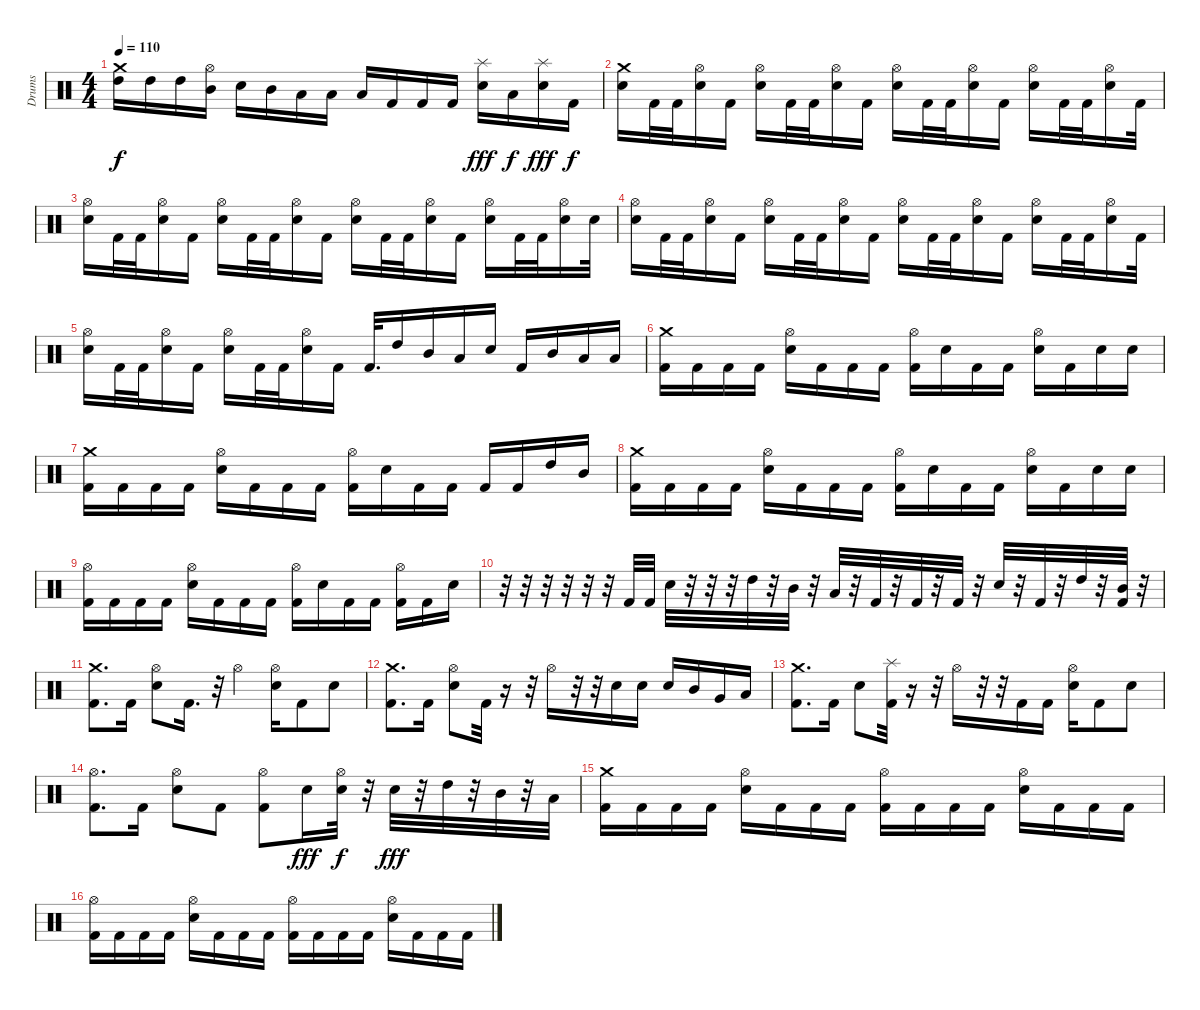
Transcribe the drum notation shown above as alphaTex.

\track ("Drums" "Drums") {instrument percussion}
\staff {score}
\articulation defaults
\ts (4 4)
\tempo 110
\clef neutral
\ks c
("Crash medium (hit)" "High Tom (hit)").16{dy f} "High Tom (hit)".16 "High Tom (hit)".16 ("Hi-Hat (open)" "Mid Tom (hit)").16 "Snare (hit) 2".16 "Mid Tom (hit)".16 "Low Tom (hit)".16 "Low Tom (hit)".16 "Low Tom (hit)".16 "Kick (hit) 2".16 "Kick (hit) 2".16 "Kick (hit) 2".16 ("Splash (hit)" "Snare (hit) 2").16{dy fff} "Low Tom (hit)".16{dy f} ("Splash (hit)" "Snare (hit) 2").16{dy fff} "Kick (hit) 2".16{dy f} |
("Crash medium (hit)" "Snare (hit) 2").16 "Kick (hit) 2".32 "Kick (hit) 2".32 ("Hi-Hat (open)" "Snare (hit) 2").16 "Kick (hit) 2".16 ("Hi-Hat (open)" "Snare (hit) 2").16 "Kick (hit) 2".32 "Kick (hit) 2".32 ("Hi-Hat (open)" "Snare (hit) 2").16 "Kick (hit) 2".16 ("Hi-Hat (open)" "Snare (hit) 2").16 "Kick (hit) 2".32 "Kick (hit) 2".32 ("Hi-Hat (open)" "Snare (hit) 2").16 "Kick (hit) 2".16 ("Hi-Hat (open)" "Snare (hit) 2").16 "Kick (hit) 2".32 "Kick (hit) 2".32 ("Hi-Hat (open)" "Snare (hit) 2").16 "Kick (hit) 2".32 |
("Hi-Hat (open)" "Snare (hit) 2").16 "Kick (hit) 2".32 "Kick (hit) 2".32 ("Hi-Hat (open)" "Snare (hit) 2").16 "Kick (hit) 2".16 ("Hi-Hat (open)" "Snare (hit) 2").16 "Kick (hit) 2".32 "Kick (hit) 2".32 ("Hi-Hat (open)" "Snare (hit) 2").16 "Kick (hit) 2".16 ("Hi-Hat (open)" "Snare (hit) 2").16 "Kick (hit) 2".32 "Kick (hit) 2".32 ("Hi-Hat (open)" "Snare (hit) 2").16 "Kick (hit) 2".16 ("Hi-Hat (open)" "Snare (hit) 2").16 "Kick (hit) 2".32 "Kick (hit) 2".32 ("Hi-Hat (open)" "Snare (hit) 2").16 "Snare (hit) 2".32 |
("Hi-Hat (open)" "Snare (hit) 2").16 "Kick (hit) 2".32 "Kick (hit) 2".32 ("Hi-Hat (open)" "Snare (hit) 2").16 "Kick (hit) 2".16 ("Hi-Hat (open)" "Snare (hit) 2").16 "Kick (hit) 2".32 "Kick (hit) 2".32 ("Hi-Hat (open)" "Snare (hit) 2").16 "Kick (hit) 2".16 ("Hi-Hat (open)" "Snare (hit) 2").16 "Kick (hit) 2".32 "Kick (hit) 2".32 ("Hi-Hat (open)" "Snare (hit) 2").16 "Kick (hit) 2".16 ("Hi-Hat (open)" "Snare (hit) 2").16 "Kick (hit) 2".32 "Kick (hit) 2".32 ("Hi-Hat (open)" "Snare (hit) 2").16 "Kick (hit) 2".32 |
("Hi-Hat (open)" "Snare (hit) 2").16 "Kick (hit) 2".32 "Kick (hit) 2".32 ("Hi-Hat (open)" "Snare (hit) 2").16 "Kick (hit) 2".16 ("Hi-Hat (open)" "Snare (hit) 2").16 "Kick (hit) 2".32 "Kick (hit) 2".32 ("Hi-Hat (open)" "Snare (hit) 2").16 "Kick (hit) 2".16 "Kick (hit) 2".32{d} "High Tom (hit)".16 "Mid Tom (hit)".16 "Low Tom (hit)".16 "Snare (hit) 2".16 "Kick (hit) 2".16 "Mid Tom (hit)".16 "Low Tom (hit)".16 "Low Tom (hit)".16 |
("Crash medium (hit)" "Kick (hit) 2").16 "Kick (hit) 2".16 "Kick (hit) 2".16 "Kick (hit) 2".16 ("Hi-Hat (open)" "Snare (hit) 2").16 "Kick (hit) 2".16 "Kick (hit) 2".16 "Kick (hit) 2".16 ("Hi-Hat (open)" "Kick (hit) 2").16 "Snare (hit) 2".16 "Kick (hit) 2".16 "Kick (hit) 2".16 ("Hi-Hat (open)" "Snare (hit) 2").16 "Kick (hit) 2".16 "Snare (hit) 2".16 "Snare (hit) 2".16 |
("Crash medium (hit)" "Kick (hit) 2").16 "Kick (hit) 2".16 "Kick (hit) 2".16 "Kick (hit) 2".16 ("Hi-Hat (open)" "Snare (hit) 2").16 "Kick (hit) 2".16 "Kick (hit) 2".16 "Kick (hit) 2".16 ("Hi-Hat (open)" "Kick (hit) 2").16 "Snare (hit) 2".16 "Kick (hit) 2".16 "Kick (hit) 2".16 "Kick (hit) 2".16 "Kick (hit) 2".16 "High Tom (hit)".16 "Mid Tom (hit)".16 |
("Crash medium (hit)" "Kick (hit) 2").16 "Kick (hit) 2".16 "Kick (hit) 2".16 "Kick (hit) 2".16 ("Hi-Hat (open)" "Snare (hit) 2").16 "Kick (hit) 2".16 "Kick (hit) 2".16 "Kick (hit) 2".16 ("Hi-Hat (open)" "Kick (hit) 2").16 "Snare (hit) 2".16 "Kick (hit) 2".16 "Kick (hit) 2".16 ("Hi-Hat (open)" "Snare (hit) 2").16 "Kick (hit) 2".16 "Snare (hit) 2".16 "Snare (hit) 2".16 |
("Hi-Hat (open)" "Kick (hit) 2").16 "Kick (hit) 2".16 "Kick (hit) 2".16 "Kick (hit) 2".16 ("Hi-Hat (open)" "Snare (hit) 2").16 "Kick (hit) 2".16 "Kick (hit) 2".16 "Kick (hit) 2".16 ("Hi-Hat (open)" "Kick (hit) 2").16 "Snare (hit) 2".16 "Kick (hit) 2".16 "Kick (hit) 2".16 ("Hi-Hat (open)" "Kick (hit) 2").16 "Kick (hit) 2".16 "Snare (hit) 2".16 |
r.32 r.32 r.32 r.32 r.32 r.32 "Kick (hit) 2".32 "Kick (hit) 2".32 "Snare (hit) 2".32 r.32 r.32 r.32 "High Tom (hit)".32 r.32 "Mid Tom (hit)".32 r.32 "Low Tom (hit)".32 r.32 "Kick (hit) 2".32 r.32 "Kick (hit) 2".32 r.32 "Kick (hit) 2".32 r.32 "Snare (hit) 2".32 r.32 "Kick (hit) 2".32 r.32 "High Tom (hit)".32 r.32 ("Mid Tom (hit)" "Kick (hit) 2").32 r.32 |
("Crash medium (hit)" "Kick (hit) 2").8{d} "Kick (hit) 2".16 ("Hi-Hat (open)" "Snare (hit) 2").8 "Kick (hit) 2".16{d} r.32 "Hi-Hat (open)".4 ("Hi-Hat (open)" "Snare (hit) 2").16 "Kick (hit) 2".8 "Snare (hit) 2".8 |
("Crash medium (hit)" "Kick (hit) 2").8{d} "Kick (hit) 2".16 ("Hi-Hat (open)" "Snare (hit) 2").8 "Kick (hit) 2".32 r.16 r.32 "Hi-Hat (open)".16 r.32 r.32 "Snare (hit) 2".16 "Snare (hit) 2".16 "Snare (hit) 2".16 "Mid Tom (hit)".16 "Very Low Tom (hit)".16 "Low Floor Tom (hit)".16 |
("Crash medium (hit)" "Kick (hit) 2").8{d} "Kick (hit) 2".16 "Snare (hit) 2".8 ("Splash (hit)" "Kick (hit) 2").32 r.16 r.32 "Hi-Hat (open)".16 r.32 r.32 "Kick (hit) 2".16 "Kick (hit) 2".16 ("Hi-Hat (open)" "Snare (hit) 2").16 "Kick (hit) 2".8 "Snare (hit) 2".8 |
("Hi-Hat (open)" "Kick (hit) 2").8{d} "Kick (hit) 2".16 ("Hi-Hat (open)" "Snare (hit) 2").8 "Kick (hit) 2".8 ("Hi-Hat (open)" "Kick (hit) 2").8 "Snare (hit) 2".16{dy fff} ("Hi-Hat (open)" "Snare (hit) 2").32{dy f} r.32 "Snare (hit) 2".32{dy fff} r.32 "High Tom (hit)".32 r.32 "Mid Tom (hit)".32 r.32 "Low Tom (hit)".32 |
("Crash medium (hit)" "Kick (hit) 2").16 "Kick (hit) 2".16 "Kick (hit) 2".16 "Kick (hit) 2".16 ("Hi-Hat (open)" "Snare (hit) 2").16 "Kick (hit) 2".16 "Kick (hit) 2".16 "Kick (hit) 2".16 ("Hi-Hat (open)" "Kick (hit) 2").16 "Kick (hit) 2".16 "Kick (hit) 2".16 "Kick (hit) 2".16 ("Hi-Hat (open)" "Snare (hit) 2").16 "Kick (hit) 2".16 "Kick (hit) 2".16 "Kick (hit) 2".16 |
("Hi-Hat (open)" "Kick (hit) 2").16 "Kick (hit) 2".16 "Kick (hit) 2".16 "Kick (hit) 2".16 ("Hi-Hat (open)" "Snare (hit) 2").16 "Kick (hit) 2".16 "Kick (hit) 2".16 "Kick (hit) 2".16 ("Hi-Hat (open)" "Kick (hit) 2").16 "Kick (hit) 2".16 "Kick (hit) 2".16 "Kick (hit) 2".16 ("Hi-Hat (open)" "Snare (hit) 2").16 "Kick (hit) 2".16 "Kick (hit) 2".16 "Kick (hit) 2".16
